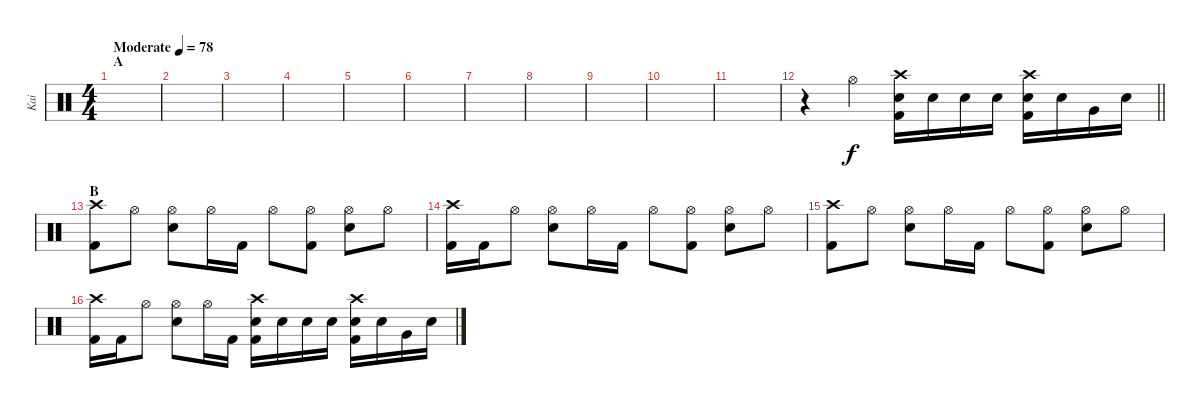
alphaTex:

\track ("Kai" "Kai") {instrument percussion}
\staff {score}
\articulation defaults
\ts (4 4)
\section ("" "A")
\tempo (78 "Moderate")
\clef neutral
\ks c
|
|
|
|
|
|
|
|
|
|
|
\barLineRight lightlight
r.4 "Hi-Hat (open)".4 ("Crash high (hit)" "Electric Snare (hit)" "Kick (hit) 2").16 "Electric Snare (hit)".16 "Electric Snare (hit)".16 "Electric Snare (hit)".16 ("Crash high (hit)" "Electric Snare (hit)" "Kick (hit) 2").16 "Electric Snare (hit)".16 "Very Low Tom (hit)".16 "Electric Snare (hit)".16 |
\section ("" "B")
("Crash high (hit)" "Kick (hit) 2").8 "Hi-Hat (open)".8 ("Hi-Hat (open)" "Electric Snare (hit)").8 "Hi-Hat (open)".16 "Kick (hit) 2".16 "Hi-Hat (open)".8 ("Hi-Hat (open)" "Kick (hit) 2").8 ("Hi-Hat (open)" "Electric Snare (hit)").8 "Hi-Hat (open)".8 |
("Crash high (hit)" "Kick (hit) 2").16 "Kick (hit) 2".16 "Hi-Hat (open)".8 ("Hi-Hat (open)" "Electric Snare (hit)").8 "Hi-Hat (open)".16 "Kick (hit) 2".16 "Hi-Hat (open)".8 ("Hi-Hat (open)" "Kick (hit) 2").8 ("Hi-Hat (open)" "Electric Snare (hit)").8 "Hi-Hat (open)".8 |
("Crash high (hit)" "Kick (hit) 2").8 "Hi-Hat (open)".8 ("Hi-Hat (open)" "Electric Snare (hit)").8 "Hi-Hat (open)".16 "Kick (hit) 2".16 "Hi-Hat (open)".8 ("Hi-Hat (open)" "Kick (hit) 2").8 ("Hi-Hat (open)" "Electric Snare (hit)").8 "Hi-Hat (open)".8 |
("Crash high (hit)" "Kick (hit) 2").16 "Kick (hit) 2".16 "Hi-Hat (open)".8 ("Hi-Hat (open)" "Electric Snare (hit)").8 "Hi-Hat (open)".16 "Kick (hit) 2".16 ("Crash high (hit)" "Electric Snare (hit)" "Kick (hit) 2").16 "Electric Snare (hit)".16 "Electric Snare (hit)".16 "Electric Snare (hit)".16 ("Crash high (hit)" "Electric Snare (hit)" "Kick (hit) 2").16 "Electric Snare (hit)".16 "Very Low Tom (hit)".16 "Electric Snare (hit)".16
